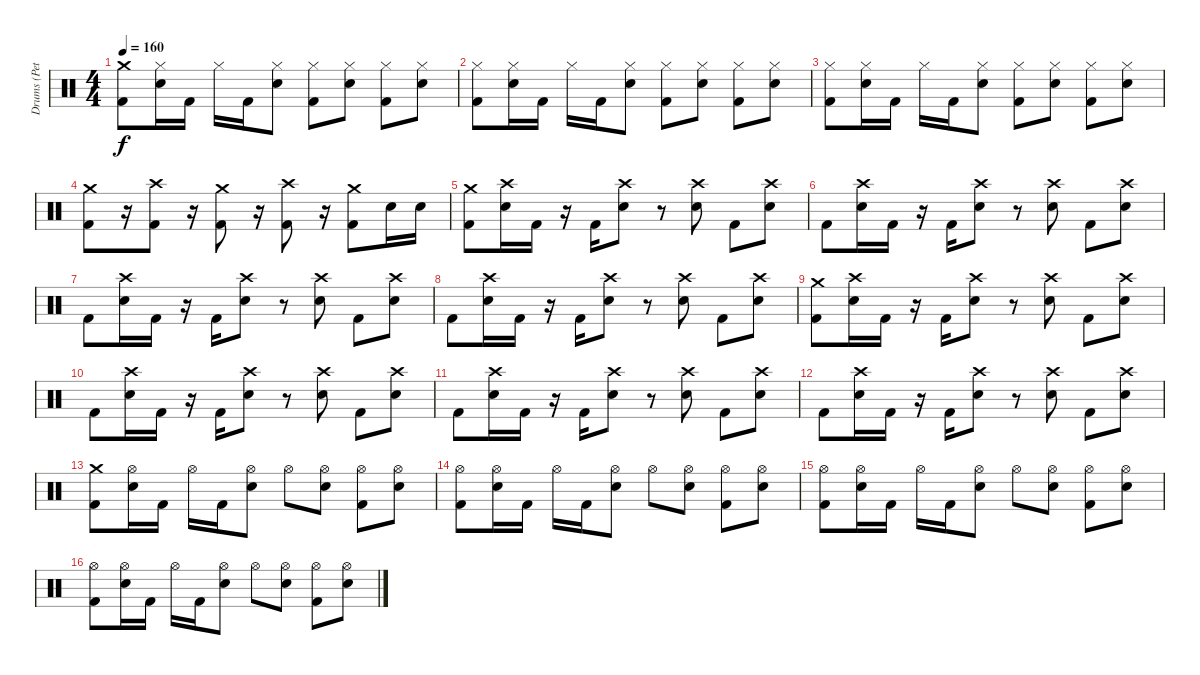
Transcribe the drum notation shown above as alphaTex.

\track ("Drums (Pete)" "Drums (Pet") {instrument percussion}
\staff {score}
\articulation defaults
\ts (4 4)
\tempo 160
\clef neutral
\ks c
("Crash medium (hit)" "Kick (hit) 2").8{dy f} ("Hi-Hat (closed)" "Snare (hit) 2").16 "Kick (hit) 2".16 "Hi-Hat (closed)".16 "Kick (hit) 2".16 ("Hi-Hat (closed)" "Snare (hit) 2").8 ("Hi-Hat (closed)" "Kick (hit) 2").8 ("Hi-Hat (closed)" "Snare (hit) 2").8 ("Hi-Hat (closed)" "Kick (hit) 2").8 ("Hi-Hat (closed)" "Snare (hit) 2").8 |
("Hi-Hat (closed)" "Kick (hit) 2").8 ("Hi-Hat (closed)" "Snare (hit) 2").16 "Kick (hit) 2".16 "Hi-Hat (closed)".16 "Kick (hit) 2".16 ("Hi-Hat (closed)" "Snare (hit) 2").8 ("Hi-Hat (closed)" "Kick (hit) 2").8 ("Hi-Hat (closed)" "Snare (hit) 2").8 ("Hi-Hat (closed)" "Kick (hit) 2").8 ("Hi-Hat (closed)" "Snare (hit) 2").8 |
("Hi-Hat (closed)" "Kick (hit) 2").8 ("Hi-Hat (closed)" "Snare (hit) 2").16 "Kick (hit) 2".16 "Hi-Hat (closed)".16 "Kick (hit) 2".16 ("Hi-Hat (closed)" "Snare (hit) 2").8 ("Hi-Hat (closed)" "Kick (hit) 2").8 ("Hi-Hat (closed)" "Snare (hit) 2").8 ("Hi-Hat (closed)" "Kick (hit) 2").8 ("Hi-Hat (closed)" "Snare (hit) 2").8 |
("Crash medium (hit)" "Kick (hit) 2").8 r.16 ("Crash high (hit)" "Kick (hit) 2").8 r.16 ("Crash medium (hit)" "Kick (hit) 2").8 r.16 ("Crash high (hit)" "Kick (hit) 2").8 r.16 ("Crash medium (hit)" "Kick (hit) 2").8 "Snare (hit) 2".16 "Snare (hit) 2".16 |
("Crash medium (hit)" "Kick (hit) 2").8 ("Crash high (hit)" "Snare (hit) 2").16 "Kick (hit) 2".16 r.16 "Kick (hit) 2".16 ("Crash high (hit)" "Snare (hit) 2").8 r.8 ("Crash high (hit)" "Snare (hit) 2").8 "Kick (hit) 2".8 ("Crash high (hit)" "Snare (hit) 2").8 |
"Kick (hit) 2".8 ("Crash high (hit)" "Snare (hit) 2").16 "Kick (hit) 2".16 r.16 "Kick (hit) 2".16 ("Crash high (hit)" "Snare (hit) 2").8 r.8 ("Crash high (hit)" "Snare (hit) 2").8 "Kick (hit) 2".8 ("Crash high (hit)" "Snare (hit) 2").8 |
"Kick (hit) 2".8 ("Crash high (hit)" "Snare (hit) 2").16 "Kick (hit) 2".16 r.16 "Kick (hit) 2".16 ("Crash high (hit)" "Snare (hit) 2").8 r.8 ("Crash high (hit)" "Snare (hit) 2").8 "Kick (hit) 2".8 ("Crash high (hit)" "Snare (hit) 2").8 |
"Kick (hit) 2".8 ("Crash high (hit)" "Snare (hit) 2").16 "Kick (hit) 2".16 r.16 "Kick (hit) 2".16 ("Crash high (hit)" "Snare (hit) 2").8 r.8 ("Crash high (hit)" "Snare (hit) 2").8 "Kick (hit) 2".8 ("Crash high (hit)" "Snare (hit) 2").8 |
("Crash medium (hit)" "Kick (hit) 2").8 ("Crash high (hit)" "Snare (hit) 2").16 "Kick (hit) 2".16 r.16 "Kick (hit) 2".16 ("Crash high (hit)" "Snare (hit) 2").8 r.8 ("Crash high (hit)" "Snare (hit) 2").8 "Kick (hit) 2".8 ("Crash high (hit)" "Snare (hit) 2").8 |
"Kick (hit) 2".8 ("Crash high (hit)" "Snare (hit) 2").16 "Kick (hit) 2".16 r.16 "Kick (hit) 2".16 ("Crash high (hit)" "Snare (hit) 2").8 r.8 ("Crash high (hit)" "Snare (hit) 2").8 "Kick (hit) 2".8 ("Crash high (hit)" "Snare (hit) 2").8 |
"Kick (hit) 2".8 ("Crash high (hit)" "Snare (hit) 2").16 "Kick (hit) 2".16 r.16 "Kick (hit) 2".16 ("Crash high (hit)" "Snare (hit) 2").8 r.8 ("Crash high (hit)" "Snare (hit) 2").8 "Kick (hit) 2".8 ("Crash high (hit)" "Snare (hit) 2").8 |
"Kick (hit) 2".8 ("Crash high (hit)" "Snare (hit) 2").16 "Kick (hit) 2".16 r.16 "Kick (hit) 2".16 ("Crash high (hit)" "Snare (hit) 2").8 r.8 ("Crash high (hit)" "Snare (hit) 2").8 "Kick (hit) 2".8 ("Crash high (hit)" "Snare (hit) 2").8 |
("Crash medium (hit)" "Kick (hit) 2").8 ("Hi-Hat (open)" "Snare (hit) 2").16 "Kick (hit) 2".16 "Hi-Hat (open)".16 "Kick (hit) 2".16 ("Hi-Hat (open)" "Snare (hit) 2").8 "Hi-Hat (open)".8 ("Hi-Hat (open)" "Snare (hit) 2").8 ("Hi-Hat (open)" "Kick (hit) 2").8 ("Hi-Hat (open)" "Snare (hit) 2").8 |
("Hi-Hat (open)" "Kick (hit) 2").8 ("Hi-Hat (open)" "Snare (hit) 2").16 "Kick (hit) 2".16 "Hi-Hat (open)".16 "Kick (hit) 2".16 ("Hi-Hat (open)" "Snare (hit) 2").8 "Hi-Hat (open)".8 ("Hi-Hat (open)" "Snare (hit) 2").8 ("Hi-Hat (open)" "Kick (hit) 2").8 ("Hi-Hat (open)" "Snare (hit) 2").8 |
("Hi-Hat (open)" "Kick (hit) 2").8 ("Hi-Hat (open)" "Snare (hit) 2").16 "Kick (hit) 2".16 "Hi-Hat (open)".16 "Kick (hit) 2".16 ("Hi-Hat (open)" "Snare (hit) 2").8 "Hi-Hat (open)".8 ("Hi-Hat (open)" "Snare (hit) 2").8 ("Hi-Hat (open)" "Kick (hit) 2").8 ("Hi-Hat (open)" "Snare (hit) 2").8 |
("Hi-Hat (open)" "Kick (hit) 2").8 ("Hi-Hat (open)" "Snare (hit) 2").16 "Kick (hit) 2".16 "Hi-Hat (open)".16 "Kick (hit) 2".16 ("Hi-Hat (open)" "Snare (hit) 2").8 "Hi-Hat (open)".8 ("Hi-Hat (open)" "Snare (hit) 2").8 ("Hi-Hat (open)" "Kick (hit) 2").8 ("Hi-Hat (open)" "Snare (hit) 2").8
